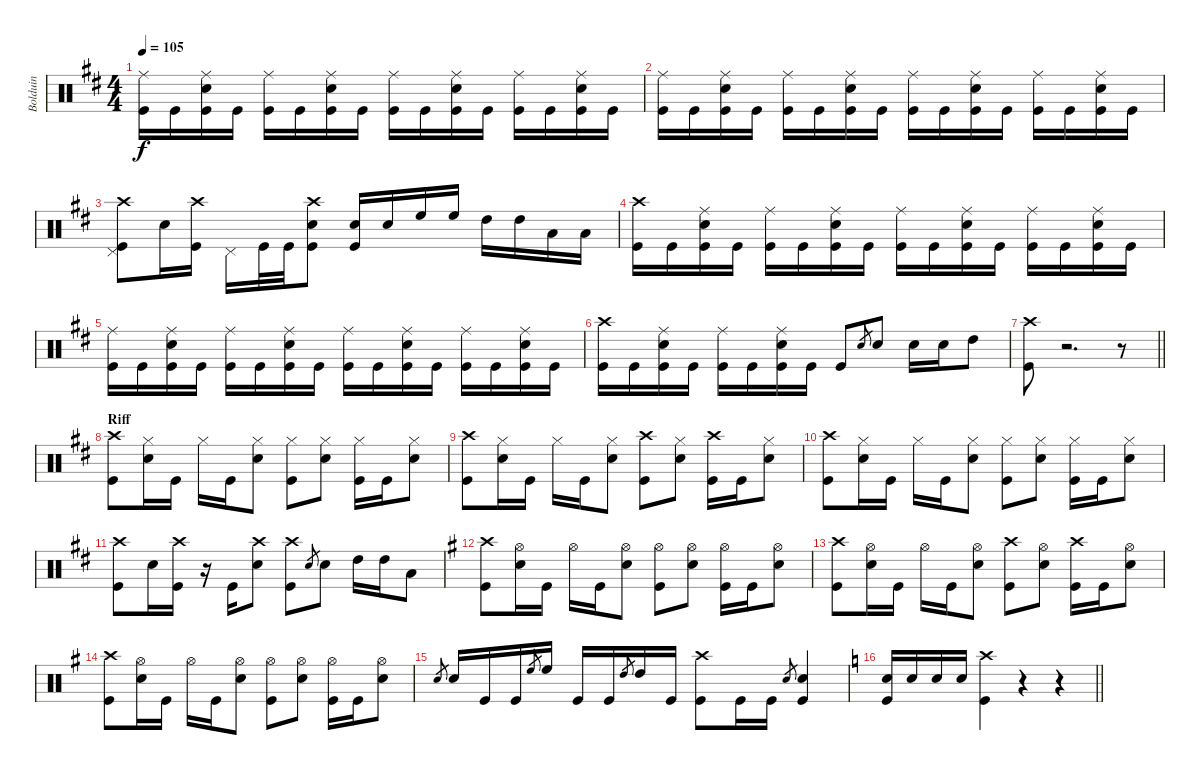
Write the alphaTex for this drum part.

\track ("Bolduin" "Bolduin") {instrument percussion}
\staff {score}
\articulation defaults
\ts (4 4)
\tempo 105
\clef neutral
\ks bminor
("Kick (hit)" "Ride (middle)").16{dy f} "Kick (hit)".16 ("Kick (hit)" "Ride (middle)" "Snare (hit) 2").16 "Kick (hit)".16 ("Kick (hit)" "Ride (middle)").16 "Kick (hit)".16 ("Kick (hit)" "Ride (middle)" "Snare (hit) 2").16 "Kick (hit)".16 ("Kick (hit)" "Ride (middle)").16 "Kick (hit)".16 ("Kick (hit)" "Ride (middle)" "Snare (hit) 2").16 "Kick (hit)".16 ("Kick (hit)" "Ride (middle)").16 "Kick (hit)".16 ("Kick (hit)" "Ride (middle)" "Snare (hit) 2").16 "Kick (hit)".16 |
("Kick (hit)" "Ride (middle)").16 "Kick (hit)".16 ("Kick (hit)" "Ride (middle)" "Snare (hit) 2").16 "Kick (hit)".16 ("Kick (hit)" "Ride (middle)").16 "Kick (hit)".16 ("Kick (hit)" "Ride (middle)" "Snare (hit) 2").16 "Kick (hit)".16 ("Kick (hit)" "Ride (middle)").16 "Kick (hit)".16 ("Kick (hit)" "Ride (middle)" "Snare (hit) 2").16 "Kick (hit)".16 ("Kick (hit)" "Ride (middle)").16 "Kick (hit)".16 ("Kick (hit)" "Ride (middle)" "Snare (hit) 2").16 "Kick (hit)".16 |
("Crash high (hit)" "Pedal Hi-Hat (hit)" "Kick (hit)").8 "Snare (hit) 2".16 ("Crash high (hit)" "Kick (hit)").16 "Pedal Hi-Hat (hit)".16 "Kick (hit)".32 "Kick (hit)".32 ("Kick (hit)" "Crash high (hit)" "Snare (hit) 2").8 ("Kick (hit)" "Snare (hit) 2").16 "Snare (hit) 2".16 "High Floor Tom (hit)".16 "High Floor Tom (hit)".16 "High Tom (hit)".16 "High Tom (hit)".16 "Low Tom (hit)".16 "Low Tom (hit)".16 |
("Kick (hit)" "Crash high (hit)").16 "Kick (hit)".16 ("Kick (hit)" "Ride (middle)" "Snare (hit) 2").16 "Kick (hit)".16 ("Kick (hit)" "Ride (middle)").16 "Kick (hit)".16 ("Kick (hit)" "Ride (middle)" "Snare (hit) 2").16 "Kick (hit)".16 ("Kick (hit)" "Ride (middle)").16 "Kick (hit)".16 ("Kick (hit)" "Ride (middle)" "Snare (hit) 2").16 "Kick (hit)".16 ("Kick (hit)" "Ride (middle)").16 "Kick (hit)".16 ("Kick (hit)" "Ride (middle)" "Snare (hit) 2").16 "Kick (hit)".16 |
("Kick (hit)" "Ride (middle)").16 "Kick (hit)".16 ("Kick (hit)" "Ride (middle)" "Snare (hit) 2").16 "Kick (hit)".16 ("Kick (hit)" "Ride (middle)").16 "Kick (hit)".16 ("Kick (hit)" "Ride (middle)" "Snare (hit) 2").16 "Kick (hit)".16 ("Kick (hit)" "Ride (middle)").16 "Kick (hit)".16 ("Kick (hit)" "Ride (middle)" "Snare (hit) 2").16 "Kick (hit)".16 ("Kick (hit)" "Ride (middle)").16 "Kick (hit)".16 ("Kick (hit)" "Ride (middle)" "Snare (hit) 2").16 "Kick (hit)".16 |
("Kick (hit)" "Crash high (hit)").16 "Kick (hit)".16 ("Kick (hit)" "Ride (middle)" "Snare (hit) 2").16 "Kick (hit)".16 ("Kick (hit)" "Ride (middle)").16 "Kick (hit)".16 ("Kick (hit)" "Ride (middle)" "Snare (hit) 2").16 "Kick (hit)".16 "Kick (hit)".8 "Snare (hit) 2".8{gr} "Snare (hit) 2".8 "Snare (hit) 2".16 "Snare (hit) 2".16 "High Tom (hit)".8 |
\barLineRight lightlight
("Crash high (hit)" "Kick (hit)").8 r.2{d} r.8 |
\section ("" "Riff")
("Kick (hit)" "Crash high (hit)").8 ("Hi-Hat (closed)" "Snare (hit) 2").16 "Kick (hit)".16 "Hi-Hat (closed)".16 "Kick (hit)".16 ("Snare (hit) 2" "Hi-Hat (closed)").8 ("Kick (hit)" "Hi-Hat (closed)").8 ("Snare (hit) 2" "Hi-Hat (closed)").8 ("Kick (hit)" "Hi-Hat (closed)").16 "Kick (hit)".16 ("Hi-Hat (closed)" "Snare (hit) 2").8 |
("Kick (hit)" "Crash high (hit)").8 ("Hi-Hat (closed)" "Snare (hit) 2").16 "Kick (hit)".16 "Hi-Hat (closed)".16 "Kick (hit)".16 ("Snare (hit) 2" "Hi-Hat (closed)").8 ("Kick (hit)" "Crash high (hit)").8 ("Snare (hit) 2" "Hi-Hat (closed)").8 ("Kick (hit)" "Crash high (hit)").16 "Kick (hit)".16 ("Hi-Hat (closed)" "Snare (hit) 2").8 |
("Kick (hit)" "Crash high (hit)").8 ("Hi-Hat (closed)" "Snare (hit) 2").16 "Kick (hit)".16 "Hi-Hat (closed)".16 "Kick (hit)".16 ("Snare (hit) 2" "Hi-Hat (closed)").8 ("Kick (hit)" "Hi-Hat (closed)").8 ("Snare (hit) 2" "Hi-Hat (closed)").8 ("Kick (hit)" "Hi-Hat (closed)").16 "Kick (hit)".16 ("Hi-Hat (closed)" "Snare (hit) 2").8 |
("Kick (hit)" "Crash high (hit)").8 "Snare (hit) 2".16 ("Crash high (hit)" "Kick (hit)").16 r.16 "Kick (hit)".16 ("Snare (hit) 2" "Crash high (hit)").8 ("Kick (hit)" "Crash high (hit)").8 "Snare (hit) 2".8{gr} "Snare (hit) 2".8 "High Tom (hit)".16 "High Tom (hit)".16 "Low Tom (hit)".8 |
\ks eminor
("Kick (hit)" "Crash high (hit)").8 ("Hi-Hat (open)" "Snare (hit) 2").16 "Kick (hit)".16 "Hi-Hat (open)".16 "Kick (hit)".16 ("Snare (hit) 2" "Hi-Hat (open)").8 ("Kick (hit)" "Hi-Hat (open)").8 ("Snare (hit) 2" "Hi-Hat (open)").8 ("Kick (hit)" "Hi-Hat (open)").16 "Kick (hit)".16 ("Hi-Hat (open)" "Snare (hit) 2").8 |
("Kick (hit)" "Crash high (hit)").8 ("Hi-Hat (open)" "Snare (hit) 2").16 "Kick (hit)".16 "Hi-Hat (open)".16 "Kick (hit)".16 ("Snare (hit) 2" "Hi-Hat (open)").8 ("Kick (hit)" "Crash high (hit)").8 ("Snare (hit) 2" "Hi-Hat (open)").8 ("Kick (hit)" "Crash high (hit)").16 "Kick (hit)".16 ("Hi-Hat (open)" "Snare (hit) 2").8 |
("Kick (hit)" "Crash high (hit)").8 ("Hi-Hat (open)" "Snare (hit) 2").16 "Kick (hit)".16 "Hi-Hat (open)".16 "Kick (hit)".16 ("Snare (hit) 2" "Hi-Hat (open)").8 ("Kick (hit)" "Hi-Hat (open)").8 ("Snare (hit) 2" "Hi-Hat (open)").8 ("Kick (hit)" "Hi-Hat (open)").16 "Kick (hit)".16 ("Hi-Hat (open)" "Snare (hit) 2").8 |
"Snare (hit) 2".8{gr} "Snare (hit) 2".16 "Kick (hit)".16 "Kick (hit)".16 "High Floor Tom (hit)".8{gr} "High Floor Tom (hit)".16 "Kick (hit)".16 "Kick (hit)".16 "High Tom (hit)".8{gr} "High Tom (hit)".16 "Kick (hit)".16 ("Crash high (hit)" "Kick (hit)").8 "Kick (hit)".16 "Kick (hit)".16 "Snare (hit) 2".8{gr} ("Kick (hit)" "Snare (hit) 2").4 |
\barLineRight lightlight
\ks aminor
("Kick (hit)" "Snare (hit) 2").16 "Snare (hit) 2".16 "Snare (hit) 2".16 "Snare (hit) 2".16 ("Kick (hit)" "Crash high (hit)").4 r.4 r.4
